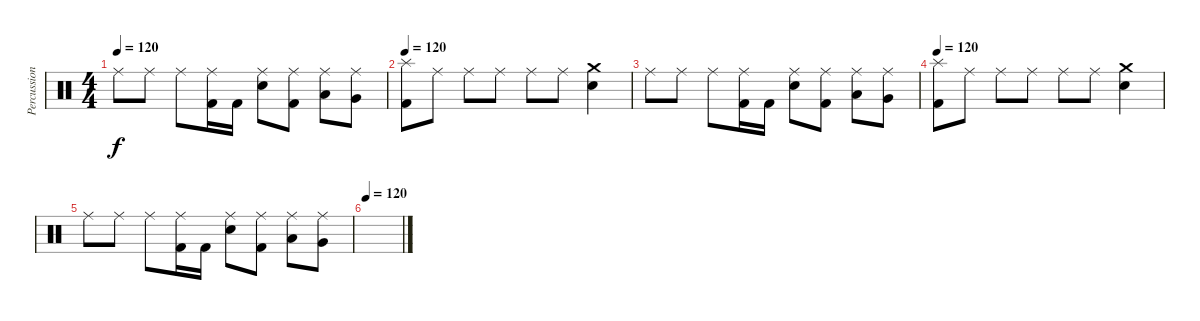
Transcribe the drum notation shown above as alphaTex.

\track ("Percussion" "Percussion") {instrument percussion}
\staff {score}
\articulation defaults
\ts (4 4)
\tempo 120
\clef neutral
\ks c "Ride (middle)".8{dy f volume 7} "Ride (middle)".8 "Ride (middle)".8
("Kick (hit) 2" "Ride (middle)").16 "Kick (hit) 2".16 ("Electric Snare (hit)" "Ride (middle)").8 ("Kick (hit) 2" "Ride (middle)").8 ("Low Tom (hit)" "Ride (middle)").8 ("Very Low Tom (hit)" "Ride (middle)").8 |
\tempo 120
("Kick (hit) 2" "Splash (hit)").8{volume 5} "Ride (middle)".8 "Ride (middle)".8 "Ride (middle)".8 "Ride (middle)".8 "Ride (middle)".8 ("Electric Snare (hit)" "Crash medium (hit)").4 |
"Ride (middle)".8{volume 3} "Ride (middle)".8 "Ride (middle)".8 ("Kick (hit) 2" "Ride (middle)").16 "Kick (hit) 2".16 ("Electric Snare (hit)" "Ride (middle)").8 ("Kick (hit) 2" "Ride (middle)").8 ("Low Tom (hit)" "Ride (middle)").8 ("Very Low Tom (hit)" "Ride (middle)").8 |
\tempo 120
("Kick (hit) 2" "Splash (hit)").8{volume 1} "Ride (middle)".8 "Ride (middle)".8 "Ride (middle)".8 "Ride (middle)".8 "Ride (middle)".8 ("Electric Snare (hit)" "Crash medium (hit)").4 |
"Ride (middle)".8{volume 0} "Ride (middle)".8 "Ride (middle)".8 ("Kick (hit) 2" "Ride (middle)").16 "Kick (hit) 2".16 ("Electric Snare (hit)" "Ride (middle)").8 ("Kick (hit) 2" "Ride (middle)").8 ("Low Tom (hit)" "Ride (middle)").8 ("Very Low Tom (hit)" "Ride (middle)").8 |
\tempo 120
